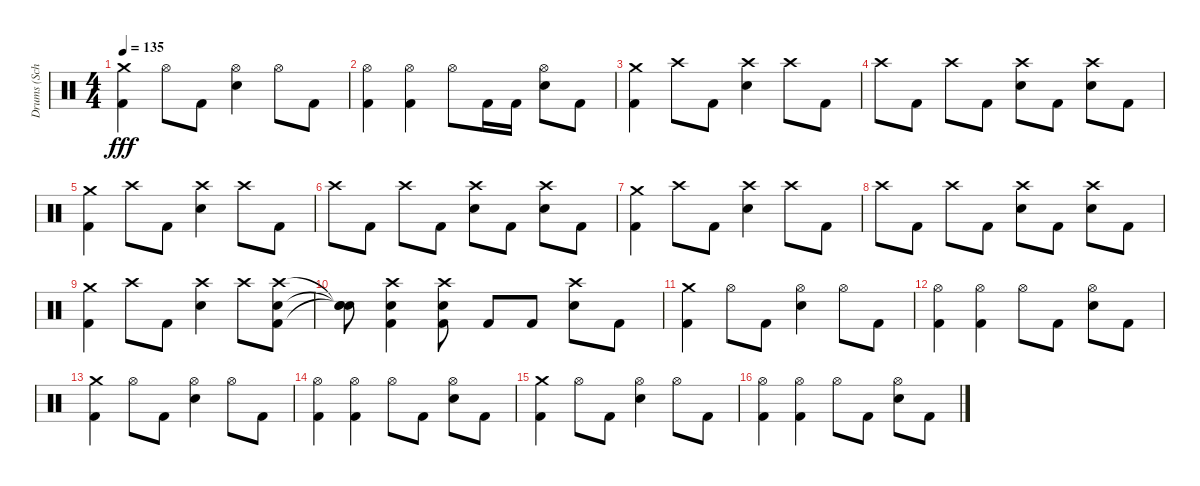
\track ("Drums (Schill)" "Drums (Sch") {instrument percussion}
\staff {score}
\articulation defaults
\ts (4 4)
\tempo 135
\clef neutral
\ks c
("Crash medium (hit)" "Kick (hit) 2").4{dy fff} "Hi-Hat (open)".8 "Kick (hit) 2".8 ("Hi-Hat (open)" "Electric Snare (hit)").4 "Hi-Hat (open)".8 "Kick (hit) 2".8 |
("Hi-Hat (open)" "Kick (hit) 2").4 ("Hi-Hat (open)" "Kick (hit) 2").4 "Hi-Hat (open)".8 "Kick (hit) 2".16 "Kick (hit) 2".16 ("Hi-Hat (open)" "Electric Snare (hit)").8 "Kick (hit) 2".8 |
("Crash medium (hit)" "Kick (hit) 2").4 "Crash high (hit)".8 "Kick (hit) 2".8 ("Crash high (hit)" "Electric Snare (hit)").4 "Crash high (hit)".8 "Kick (hit) 2".8 |
"Crash high (hit)".8 "Kick (hit) 2".8 "Crash high (hit)".8 "Kick (hit) 2".8 ("Crash high (hit)" "Electric Snare (hit)").8 "Kick (hit) 2".8 ("Crash high (hit)" "Electric Snare (hit)").8 "Kick (hit) 2".8 |
("Crash medium (hit)" "Kick (hit) 2").4 "Crash high (hit)".8 "Kick (hit) 2".8 ("Crash high (hit)" "Electric Snare (hit)").4 "Crash high (hit)".8 "Kick (hit) 2".8 |
"Crash high (hit)".8 "Kick (hit) 2".8 "Crash high (hit)".8 "Kick (hit) 2".8 ("Crash high (hit)" "Electric Snare (hit)").8 "Kick (hit) 2".8 ("Crash high (hit)" "Electric Snare (hit)").8 "Kick (hit) 2".8 |
("Crash medium (hit)" "Kick (hit) 2").4 "Crash high (hit)".8 "Kick (hit) 2".8 ("Crash high (hit)" "Electric Snare (hit)").4 "Crash high (hit)".8 "Kick (hit) 2".8 |
"Crash high (hit)".8 "Kick (hit) 2".8 "Crash high (hit)".8 "Kick (hit) 2".8 ("Crash high (hit)" "Electric Snare (hit)").8 "Kick (hit) 2".8 ("Crash high (hit)" "Electric Snare (hit)").8 "Kick (hit) 2".8 |
("Crash medium (hit)" "Kick (hit) 2").4 "Crash high (hit)".8 "Kick (hit) 2".8 ("Crash high (hit)" "Electric Snare (hit)").4 "Crash high (hit)".8 ("Crash high (hit)" "Electric Snare (hit)" "Kick (hit) 2").8 |
("Snare (hit)"{t} "Snare (hit)"{t} "Snare (hit)"{t}).8 ("Crash high (hit)" "Electric Snare (hit)" "Kick (hit) 2").4 ("Crash high (hit)" "Electric Snare (hit)" "Kick (hit) 2").8 "Kick (hit) 2".8 "Kick (hit) 2".8 ("Crash high (hit)" "Electric Snare (hit)").8 "Kick (hit) 2".8 |
("Crash medium (hit)" "Kick (hit) 2").4 "Hi-Hat (open)".8 "Kick (hit) 2".8 ("Hi-Hat (open)" "Electric Snare (hit)").4 "Hi-Hat (open)".8 "Kick (hit) 2".8 |
("Hi-Hat (open)" "Kick (hit) 2").4 ("Hi-Hat (open)" "Kick (hit) 2").4 "Hi-Hat (open)".8 "Kick (hit) 2".8 ("Hi-Hat (open)" "Electric Snare (hit)").8 "Kick (hit) 2".8 |
("Crash medium (hit)" "Kick (hit) 2").4 "Hi-Hat (open)".8 "Kick (hit) 2".8 ("Hi-Hat (open)" "Electric Snare (hit)").4 "Hi-Hat (open)".8 "Kick (hit) 2".8 |
("Hi-Hat (open)" "Kick (hit) 2").4 ("Hi-Hat (open)" "Kick (hit) 2").4 "Hi-Hat (open)".8 "Kick (hit) 2".8 ("Hi-Hat (open)" "Electric Snare (hit)").8 "Kick (hit) 2".8 |
("Crash medium (hit)" "Kick (hit) 2").4 "Hi-Hat (open)".8 "Kick (hit) 2".8 ("Hi-Hat (open)" "Electric Snare (hit)").4 "Hi-Hat (open)".8 "Kick (hit) 2".8 |
("Hi-Hat (open)" "Kick (hit) 2").4 ("Hi-Hat (open)" "Kick (hit) 2").4 "Hi-Hat (open)".8 "Kick (hit) 2".8 ("Hi-Hat (open)" "Electric Snare (hit)").8 "Kick (hit) 2".8
